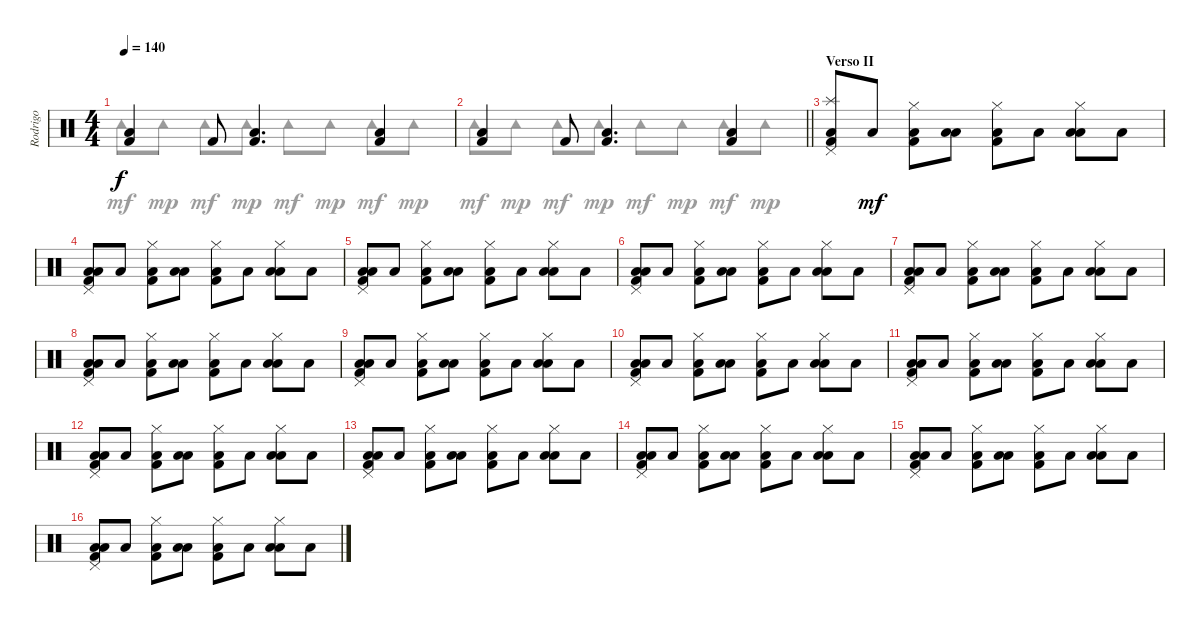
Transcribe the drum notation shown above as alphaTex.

\track ("Rodrigo" "Rodrigo") {instrument percussion}
\staff {score}
\articulation defaults
\voice
\ts (4 4)
\tempo 140
\clef neutral
\ks c
("Low Floor Tom (hit)" "Kick (hit) 2").4{dy f} "Kick (hit) 2".8 ("Low Floor Tom (hit)" "Kick (hit) 2").4{d} ("Low Floor Tom (hit)" "Kick (hit) 2").4 |
\barLineRight lightlight
("Low Floor Tom (hit)" "Kick (hit) 2").4 "Kick (hit) 2".8 ("Low Floor Tom (hit)" "Kick (hit) 2").4{d} ("Low Floor Tom (hit)" "Kick (hit) 2").4 |
\section ("" "Verso II")
("Splash (hit)" "Pedal Hi-Hat (hit)" "Low Floor Tom (hit)" "Kick (hit) 2").8 "Low Floor Tom (hit)".8{dy mf} ("Hi-Hat (closed)" "Low Floor Tom (hit)" "Kick (hit) 2").8 ("Low Floor Tom (hit)" "Low Floor Tom (hit)").8 ("Hi-Hat (closed)" "Low Floor Tom (hit)" "Kick (hit) 2").8 "Low Floor Tom (hit)".8 ("Hi-Hat (closed)" "Low Floor Tom (hit)" "Low Floor Tom (hit)").8 "Low Floor Tom (hit)".8 |
("Pedal Hi-Hat (hit)" "Low Floor Tom (hit)" "Low Floor Tom (hit)" "Kick (hit) 2").8 "Low Floor Tom (hit)".8 ("Hi-Hat (closed)" "Low Floor Tom (hit)" "Kick (hit) 2").8 ("Low Floor Tom (hit)" "Low Floor Tom (hit)").8 ("Hi-Hat (closed)" "Low Floor Tom (hit)" "Kick (hit) 2").8 "Low Floor Tom (hit)".8 ("Hi-Hat (closed)" "Low Floor Tom (hit)" "Low Floor Tom (hit)").8 "Low Floor Tom (hit)".8 |
("Pedal Hi-Hat (hit)" "Low Floor Tom (hit)" "Low Floor Tom (hit)" "Kick (hit) 2").8 "Low Floor Tom (hit)".8 ("Hi-Hat (closed)" "Low Floor Tom (hit)" "Kick (hit) 2").8 ("Low Floor Tom (hit)" "Low Floor Tom (hit)").8 ("Hi-Hat (closed)" "Low Floor Tom (hit)" "Kick (hit) 2").8 "Low Floor Tom (hit)".8 ("Hi-Hat (closed)" "Low Floor Tom (hit)" "Low Floor Tom (hit)").8 "Low Floor Tom (hit)".8 |
("Pedal Hi-Hat (hit)" "Low Floor Tom (hit)" "Low Floor Tom (hit)" "Kick (hit) 2").8 "Low Floor Tom (hit)".8 ("Hi-Hat (closed)" "Low Floor Tom (hit)" "Kick (hit) 2").8 ("Low Floor Tom (hit)" "Low Floor Tom (hit)").8 ("Hi-Hat (closed)" "Low Floor Tom (hit)" "Kick (hit) 2").8 "Low Floor Tom (hit)".8 ("Hi-Hat (closed)" "Low Floor Tom (hit)" "Low Floor Tom (hit)").8 "Low Floor Tom (hit)".8 |
("Pedal Hi-Hat (hit)" "Low Floor Tom (hit)" "Low Floor Tom (hit)" "Kick (hit) 2").8 "Low Floor Tom (hit)".8 ("Hi-Hat (closed)" "Low Floor Tom (hit)" "Kick (hit) 2").8 ("Low Floor Tom (hit)" "Low Floor Tom (hit)").8 ("Hi-Hat (closed)" "Low Floor Tom (hit)" "Kick (hit) 2").8 "Low Floor Tom (hit)".8 ("Hi-Hat (closed)" "Low Floor Tom (hit)" "Low Floor Tom (hit)").8 "Low Floor Tom (hit)".8 |
("Pedal Hi-Hat (hit)" "Low Floor Tom (hit)" "Low Floor Tom (hit)" "Kick (hit) 2").8 "Low Floor Tom (hit)".8 ("Hi-Hat (closed)" "Low Floor Tom (hit)" "Kick (hit) 2").8 ("Low Floor Tom (hit)" "Low Floor Tom (hit)").8 ("Hi-Hat (closed)" "Low Floor Tom (hit)" "Kick (hit) 2").8 "Low Floor Tom (hit)".8 ("Hi-Hat (closed)" "Low Floor Tom (hit)" "Low Floor Tom (hit)").8 "Low Floor Tom (hit)".8 |
("Pedal Hi-Hat (hit)" "Low Floor Tom (hit)" "Low Floor Tom (hit)" "Kick (hit) 2").8 "Low Floor Tom (hit)".8 ("Hi-Hat (closed)" "Low Floor Tom (hit)" "Kick (hit) 2").8 ("Low Floor Tom (hit)" "Low Floor Tom (hit)").8 ("Hi-Hat (closed)" "Low Floor Tom (hit)" "Kick (hit) 2").8 "Low Floor Tom (hit)".8 ("Hi-Hat (closed)" "Low Floor Tom (hit)" "Low Floor Tom (hit)").8 "Low Floor Tom (hit)".8 |
("Pedal Hi-Hat (hit)" "Low Floor Tom (hit)" "Low Floor Tom (hit)" "Kick (hit) 2").8 "Low Floor Tom (hit)".8 ("Hi-Hat (closed)" "Low Floor Tom (hit)" "Kick (hit) 2").8 ("Low Floor Tom (hit)" "Low Floor Tom (hit)").8 ("Hi-Hat (closed)" "Low Floor Tom (hit)" "Kick (hit) 2").8 "Low Floor Tom (hit)".8 ("Hi-Hat (closed)" "Low Floor Tom (hit)" "Low Floor Tom (hit)").8 "Low Floor Tom (hit)".8 |
("Pedal Hi-Hat (hit)" "Low Floor Tom (hit)" "Low Floor Tom (hit)" "Kick (hit) 2").8 "Low Floor Tom (hit)".8 ("Hi-Hat (closed)" "Low Floor Tom (hit)" "Kick (hit) 2").8 ("Low Floor Tom (hit)" "Low Floor Tom (hit)").8 ("Hi-Hat (closed)" "Low Floor Tom (hit)" "Kick (hit) 2").8 "Low Floor Tom (hit)".8 ("Hi-Hat (closed)" "Low Floor Tom (hit)" "Low Floor Tom (hit)").8 "Low Floor Tom (hit)".8 |
("Pedal Hi-Hat (hit)" "Low Floor Tom (hit)" "Low Floor Tom (hit)" "Kick (hit) 2").8 "Low Floor Tom (hit)".8 ("Hi-Hat (closed)" "Low Floor Tom (hit)" "Kick (hit) 2").8 ("Low Floor Tom (hit)" "Low Floor Tom (hit)").8 ("Hi-Hat (closed)" "Low Floor Tom (hit)" "Kick (hit) 2").8 "Low Floor Tom (hit)".8 ("Hi-Hat (closed)" "Low Floor Tom (hit)" "Low Floor Tom (hit)").8 "Low Floor Tom (hit)".8 |
("Pedal Hi-Hat (hit)" "Low Floor Tom (hit)" "Low Floor Tom (hit)" "Kick (hit) 2").8 "Low Floor Tom (hit)".8 ("Hi-Hat (closed)" "Low Floor Tom (hit)" "Kick (hit) 2").8 ("Low Floor Tom (hit)" "Low Floor Tom (hit)").8 ("Hi-Hat (closed)" "Low Floor Tom (hit)" "Kick (hit) 2").8 "Low Floor Tom (hit)".8 ("Hi-Hat (closed)" "Low Floor Tom (hit)" "Low Floor Tom (hit)").8 "Low Floor Tom (hit)".8 |
("Pedal Hi-Hat (hit)" "Low Floor Tom (hit)" "Low Floor Tom (hit)" "Kick (hit) 2").8 "Low Floor Tom (hit)".8 ("Hi-Hat (closed)" "Low Floor Tom (hit)" "Kick (hit) 2").8 ("Low Floor Tom (hit)" "Low Floor Tom (hit)").8 ("Hi-Hat (closed)" "Low Floor Tom (hit)" "Kick (hit) 2").8 "Low Floor Tom (hit)".8 ("Hi-Hat (closed)" "Low Floor Tom (hit)" "Low Floor Tom (hit)").8 "Low Floor Tom (hit)".8 |
("Pedal Hi-Hat (hit)" "Low Floor Tom (hit)" "Low Floor Tom (hit)" "Kick (hit) 2").8 "Low Floor Tom (hit)".8 ("Hi-Hat (closed)" "Low Floor Tom (hit)" "Kick (hit) 2").8 ("Low Floor Tom (hit)" "Low Floor Tom (hit)").8 ("Hi-Hat (closed)" "Low Floor Tom (hit)" "Kick (hit) 2").8 "Low Floor Tom (hit)".8 ("Hi-Hat (closed)" "Low Floor Tom (hit)" "Low Floor Tom (hit)").8 "Low Floor Tom (hit)".8 |
("Pedal Hi-Hat (hit)" "Low Floor Tom (hit)" "Low Floor Tom (hit)" "Kick (hit) 2").8 "Low Floor Tom (hit)".8 ("Hi-Hat (closed)" "Low Floor Tom (hit)" "Kick (hit) 2").8 ("Low Floor Tom (hit)" "Low Floor Tom (hit)").8 ("Hi-Hat (closed)" "Low Floor Tom (hit)" "Kick (hit) 2").8 "Low Floor Tom (hit)".8 ("Hi-Hat (closed)" "Low Floor Tom (hit)" "Low Floor Tom (hit)").8 "Low Floor Tom (hit)".8
\voice
\clef neutral
\ottava regular
\simile none
\ks c "Tambourine (hit)".8{dy mf} "Tambourine (hit)".8{dy mp} "Tambourine (hit)".8{dy mf} "Tambourine (hit)".8{dy mp} "Tambourine (hit)".8{dy mf} "Tambourine (hit)".8{dy mp} "Tambourine (hit)".8{dy mf} "Tambourine (hit)".8{dy mp}
|
\barLineRight lightlight "Tambourine (hit)".8{dy mf} "Tambourine (hit)".8{dy mp} "Tambourine (hit)".8{dy mf} "Tambourine (hit)".8{dy mp} "Tambourine (hit)".8{dy mf} "Tambourine (hit)".8{dy mp} "Tambourine (hit)".8{dy mf} "Tambourine (hit)".8{dy mp}
|
|
|
|
|
|
|
|
|
|
|
|
|
|
